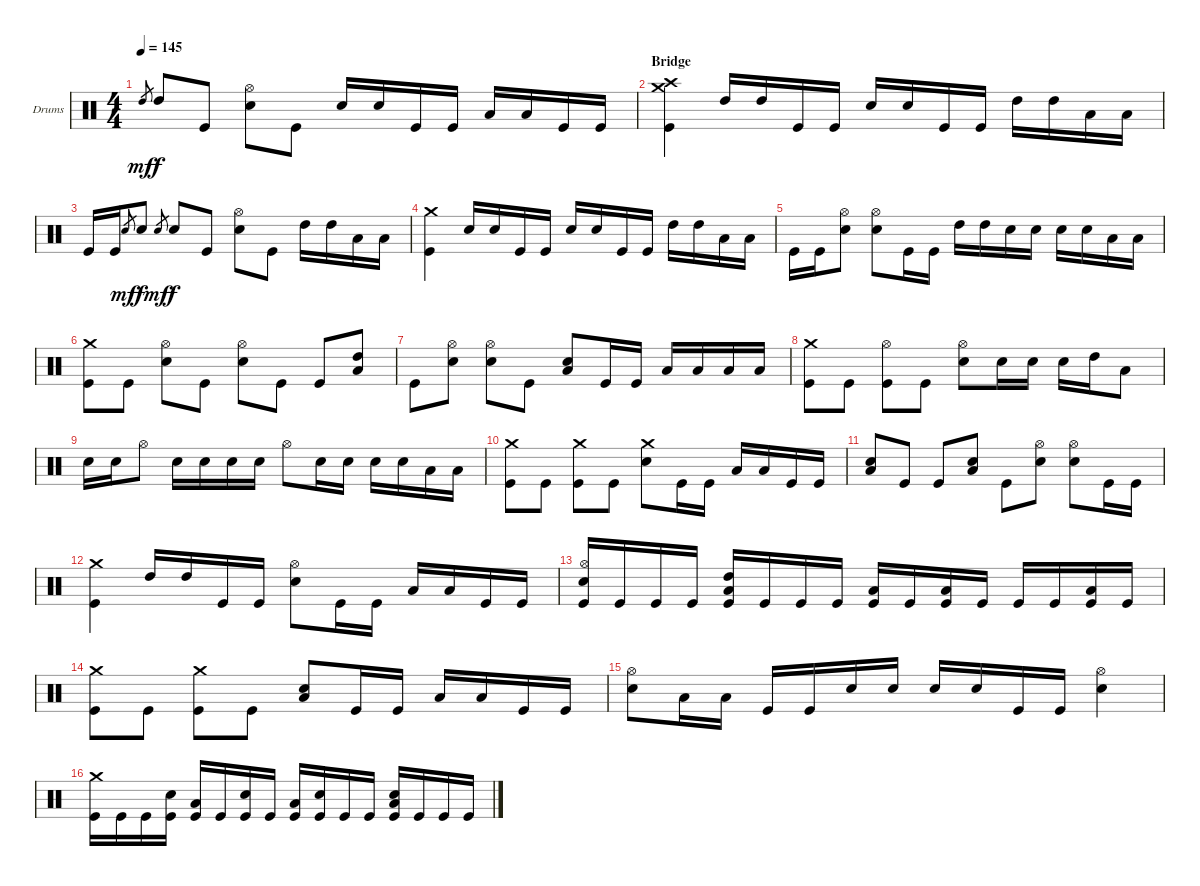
\bracketExtendMode groupsimilarinstruments
\firstSystemTrackNameOrientation horizontal
\otherSystemsTrackNameOrientation horizontal
\track ("Drumkit" "Drums") {instrument percussion}
\staff {score}
\articulation defaults
\ts (4 4)
\tempo 145
\clef neutral
\ks c "High Tom (hit)".8{gr dy mf} "High Tom (hit)".8{dy f} "Kick (hit)".8
("Hi-Hat (open)" "Snare (hit) 2").8 "Kick (hit)".8 "Snare (hit) 2".16 "Snare (hit) 2".16 "Kick (hit)".16 "Kick (hit)".16 "Low Tom (hit)".16 "Low Tom (hit)".16 "Kick (hit)".16 "Kick (hit)".16 |
\section ("" "Bridge")
("Crash medium (hit)" "Crash high (hit)" "Kick (hit)").4 "High Tom (hit)".16 "High Tom (hit)".16 "Kick (hit)".16 "Kick (hit)".16 "Snare (hit) 2".16 "Snare (hit) 2".16 "Kick (hit)".16 "Kick (hit)".16 "High Tom (hit)".16 "High Tom (hit)".16 "Low Tom (hit)".16 "Low Tom (hit)".16 |
"Kick (hit)".16 "Kick (hit)".16 "Snare (hit) 2".8{gr dy mf} "Snare (hit) 2".8{dy f} "Snare (hit) 2".8{gr dy mf} "Snare (hit) 2".8{dy f} "Kick (hit)".8 ("Hi-Hat (open)" "Snare (hit) 2").8 "Kick (hit)".8 "High Tom (hit)".16 "High Tom (hit)".16 "Low Tom (hit)".16 "Low Tom (hit)".16 |
("Crash medium (hit)" "Kick (hit)").4 "Snare (hit) 2".16 "Snare (hit) 2".16 "Kick (hit)".16 "Kick (hit)".16 "Snare (hit) 2".16 "Snare (hit) 2".16 "Kick (hit)".16 "Kick (hit)".16 "High Tom (hit)".16 "High Tom (hit)".16 "Low Tom (hit)".16 "Low Tom (hit)".16 |
"Kick (hit)".16 "Kick (hit)".16 ("Hi-Hat (open)" "Snare (hit) 2").8 ("Hi-Hat (open)" "Snare (hit) 2").8 "Kick (hit)".16 "Kick (hit)".16 "High Tom (hit)".16 "High Tom (hit)".16 "Snare (hit) 2".16 "Snare (hit) 2".16 "Snare (hit) 2".16 "Snare (hit) 2".16 "Low Tom (hit)".16 "Low Tom (hit)".16 |
("Crash medium (hit)" "Kick (hit)").8 "Kick (hit)".8 ("Hi-Hat (open)" "Snare (hit) 2").8 "Kick (hit)".8 ("Hi-Hat (open)" "Snare (hit) 2").8 "Kick (hit)".8 "Kick (hit)".8 ("High Tom (hit)" "Low Tom (hit)").8 |
"Kick (hit)".8 ("Hi-Hat (open)" "Snare (hit) 2").8 ("Hi-Hat (open)" "Snare (hit) 2").8 "Kick (hit)".8 ("Snare (hit) 2" "Low Tom (hit)").8 "Kick (hit)".16 "Kick (hit)".16 "Low Tom (hit)".16 "Low Tom (hit)".16 "Low Tom (hit)".16 "Low Tom (hit)".16 |
("Crash medium (hit)" "Kick (hit)").8 "Kick (hit)".8 ("Hi-Hat (open)" "Kick (hit)").8 "Kick (hit)".8 ("Hi-Hat (open)" "Snare (hit) 2").8 "Snare (hit) 2".16 "Snare (hit) 2".16 "Snare (hit) 2".16 "High Tom (hit)".16 "Low Tom (hit)".8 |
"Snare (hit) 2".16 "Snare (hit) 2".16 "Hi-Hat (open)".8 "Snare (hit) 2".16 "Snare (hit) 2".16 "Snare (hit) 2".16 "Snare (hit) 2".16 "Hi-Hat (open)".8 "Snare (hit) 2".16 "Snare (hit) 2".16 "Snare (hit) 2".16 "Snare (hit) 2".16 "Low Tom (hit)".16 "Low Tom (hit)".16 |
("Crash medium (hit)" "Kick (hit)").8 "Kick (hit)".8 ("Crash medium (hit)" "Kick (hit)").8 "Kick (hit)".8 ("Crash medium (hit)" "Snare (hit) 2").8 "Kick (hit)".16 "Kick (hit)".16 "Low Tom (hit)".16 "Low Tom (hit)".16 "Kick (hit)".16 "Kick (hit)".16 |
("Snare (hit) 2" "Low Tom (hit)").8 "Kick (hit)".8 "Kick (hit)".8 ("Snare (hit) 2" "Low Tom (hit)").8 "Kick (hit)".8 ("Hi-Hat (open)" "Snare (hit) 2").8 ("Hi-Hat (open)" "Snare (hit) 2").8 "Kick (hit)".16 "Kick (hit)".16 |
("Crash medium (hit)" "Kick (hit)").4 "High Tom (hit)".16 "High Tom (hit)".16 "Kick (hit)".16 "Kick (hit)".16 ("Hi-Hat (open)" "Snare (hit) 2").8 "Kick (hit)".16 "Kick (hit)".16 "Low Tom (hit)".16 "Low Tom (hit)".16 "Kick (hit)".16 "Kick (hit)".16 |
("Hi-Hat (open)" "Snare (hit) 2" "Kick (hit)").16 "Kick (hit)".16 "Kick (hit)".16 "Kick (hit)".16 ("High Tom (hit)" "Low Tom (hit)" "Kick (hit)").16 "Kick (hit)".16 "Kick (hit)".16 "Kick (hit)".16 ("Low Tom (hit)" "Kick (hit)").16 "Kick (hit)".16 ("Low Tom (hit)" "Kick (hit)").16 "Kick (hit)".16 "Kick (hit)".16 "Kick (hit)".16 ("Low Tom (hit)" "Kick (hit)").16 "Kick (hit)".16 |
("Crash medium (hit)" "Kick (hit)").8 "Kick (hit)".8 ("Crash medium (hit)" "Kick (hit)").8 "Kick (hit)".8 ("Snare (hit) 2" "Low Tom (hit)").8 "Kick (hit)".16 "Kick (hit)".16 "Low Tom (hit)".16 "Low Tom (hit)".16 "Kick (hit)".16 "Kick (hit)".16 |
("Hi-Hat (open)" "Snare (hit) 2").8 "Low Tom (hit)".16 "Low Tom (hit)".16 "Kick (hit)".16 "Kick (hit)".16 "Snare (hit) 2".16 "Snare (hit) 2".16 "Snare (hit) 2".16 "Snare (hit) 2".16 "Kick (hit)".16 "Kick (hit)".16 ("Hi-Hat (open)" "Snare (hit) 2").4 |
("Crash medium (hit)" "Kick (hit)").16 "Kick (hit)".16 "Kick (hit)".16 ("Snare (hit) 2" "Kick (hit)").16 ("Low Tom (hit)" "Kick (hit)").16 "Kick (hit)".16 ("Snare (hit) 2" "Kick (hit)").16 "Kick (hit)".16 ("Low Tom (hit)" "Kick (hit)").16 ("Snare (hit) 2" "Kick (hit)").16 "Kick (hit)".16 "Kick (hit)".16 ("Snare (hit) 2" "Low Tom (hit)" "Kick (hit)").16 "Kick (hit)".16 "Kick (hit)".16 "Kick (hit)".16
